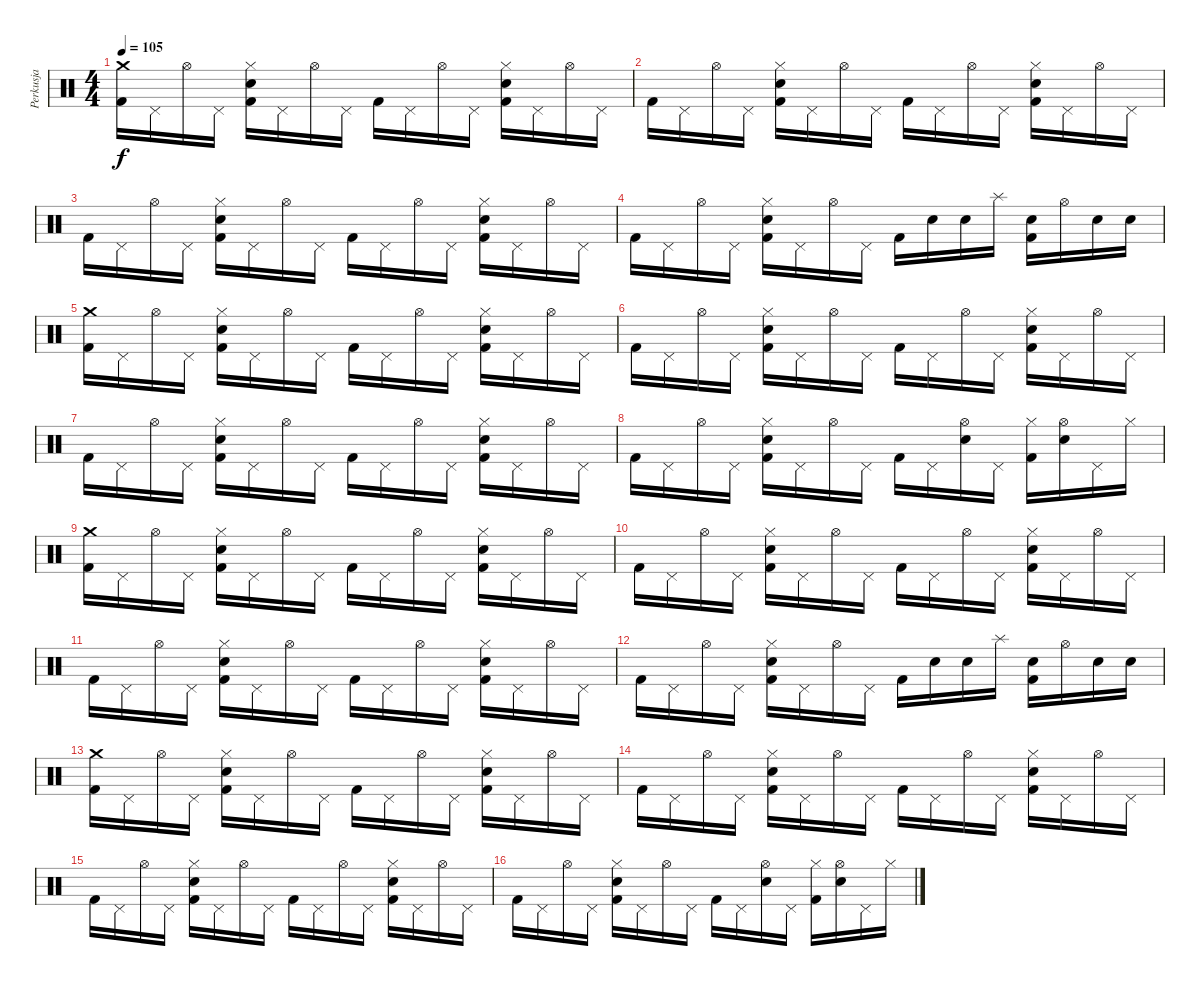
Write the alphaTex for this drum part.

\track ("Perkusja" "Perkusja") {instrument percussion}
\staff {score}
\articulation defaults
\ts (4 4)
\tempo 105
\clef neutral
\ks c
("Crash medium (hit)" "Kick (hit) 2").16{dy f} "Pedal Hi-Hat (hit)".16 "Hi-Hat (open)".16 "Pedal Hi-Hat (hit)".16 ("Hi-Hat (closed)" "Electric Snare (hit)" "Kick (hit) 2").16 "Pedal Hi-Hat (hit)".16 "Hi-Hat (open)".16 "Pedal Hi-Hat (hit)".16 "Kick (hit) 2".16 "Pedal Hi-Hat (hit)".16 "Hi-Hat (open)".16 "Pedal Hi-Hat (hit)".16 ("Hi-Hat (closed)" "Electric Snare (hit)" "Kick (hit) 2").16 "Pedal Hi-Hat (hit)".16 "Hi-Hat (open)".16 "Pedal Hi-Hat (hit)".16 |
"Kick (hit) 2".16 "Pedal Hi-Hat (hit)".16 "Hi-Hat (open)".16 "Pedal Hi-Hat (hit)".16 ("Hi-Hat (closed)" "Electric Snare (hit)" "Kick (hit) 2").16 "Pedal Hi-Hat (hit)".16 "Hi-Hat (open)".16 "Pedal Hi-Hat (hit)".16 "Kick (hit) 2".16 "Pedal Hi-Hat (hit)".16 "Hi-Hat (open)".16 "Pedal Hi-Hat (hit)".16 ("Hi-Hat (closed)" "Electric Snare (hit)" "Kick (hit) 2").16 "Pedal Hi-Hat (hit)".16 "Hi-Hat (open)".16 "Pedal Hi-Hat (hit)".16 |
"Kick (hit) 2".16 "Pedal Hi-Hat (hit)".16 "Hi-Hat (open)".16 "Pedal Hi-Hat (hit)".16 ("Hi-Hat (closed)" "Electric Snare (hit)" "Kick (hit) 2").16 "Pedal Hi-Hat (hit)".16 "Hi-Hat (open)".16 "Pedal Hi-Hat (hit)".16 "Kick (hit) 2".16 "Pedal Hi-Hat (hit)".16 "Hi-Hat (open)".16 "Pedal Hi-Hat (hit)".16 ("Hi-Hat (closed)" "Electric Snare (hit)" "Kick (hit) 2").16 "Pedal Hi-Hat (hit)".16 "Hi-Hat (open)".16 "Pedal Hi-Hat (hit)".16 |
"Kick (hit) 2".16 "Pedal Hi-Hat (hit)".16 "Hi-Hat (open)".16 "Pedal Hi-Hat (hit)".16 ("Hi-Hat (closed)" "Electric Snare (hit)" "Kick (hit) 2").16 "Pedal Hi-Hat (hit)".16 "Hi-Hat (open)".16 "Pedal Hi-Hat (hit)".16 "Kick (hit) 2".16 "Electric Snare (hit)".16 "Electric Snare (hit)".16 "Splash (hit)".16 ("Electric Snare (hit)" "Kick (hit) 2").16 "Hi-Hat (open)".16 "Electric Snare (hit)".16 "Electric Snare (hit)".16 |
("Crash medium (hit)" "Kick (hit) 2").16 "Pedal Hi-Hat (hit)".16 "Hi-Hat (open)".16 "Pedal Hi-Hat (hit)".16 ("Hi-Hat (closed)" "Electric Snare (hit)" "Kick (hit) 2").16 "Pedal Hi-Hat (hit)".16 "Hi-Hat (open)".16 "Pedal Hi-Hat (hit)".16 "Kick (hit) 2".16 "Pedal Hi-Hat (hit)".16 "Hi-Hat (open)".16 "Pedal Hi-Hat (hit)".16 ("Hi-Hat (closed)" "Electric Snare (hit)" "Kick (hit) 2").16 "Pedal Hi-Hat (hit)".16 "Hi-Hat (open)".16 "Pedal Hi-Hat (hit)".16 |
"Kick (hit) 2".16 "Pedal Hi-Hat (hit)".16 "Hi-Hat (open)".16 "Pedal Hi-Hat (hit)".16 ("Hi-Hat (closed)" "Electric Snare (hit)" "Kick (hit) 2").16 "Pedal Hi-Hat (hit)".16 "Hi-Hat (open)".16 "Pedal Hi-Hat (hit)".16 "Kick (hit) 2".16 "Pedal Hi-Hat (hit)".16 "Hi-Hat (open)".16 "Pedal Hi-Hat (hit)".16 ("Hi-Hat (closed)" "Electric Snare (hit)" "Kick (hit) 2").16 "Pedal Hi-Hat (hit)".16 "Hi-Hat (open)".16 "Pedal Hi-Hat (hit)".16 |
"Kick (hit) 2".16 "Pedal Hi-Hat (hit)".16 "Hi-Hat (open)".16 "Pedal Hi-Hat (hit)".16 ("Hi-Hat (closed)" "Electric Snare (hit)" "Kick (hit) 2").16 "Pedal Hi-Hat (hit)".16 "Hi-Hat (open)".16 "Pedal Hi-Hat (hit)".16 "Kick (hit) 2".16 "Pedal Hi-Hat (hit)".16 "Hi-Hat (open)".16 "Pedal Hi-Hat (hit)".16 ("Hi-Hat (closed)" "Electric Snare (hit)" "Kick (hit) 2").16 "Pedal Hi-Hat (hit)".16 "Hi-Hat (open)".16 "Pedal Hi-Hat (hit)".16 |
"Kick (hit) 2".16 "Pedal Hi-Hat (hit)".16 "Hi-Hat (open)".16 "Pedal Hi-Hat (hit)".16 ("Hi-Hat (closed)" "Electric Snare (hit)" "Kick (hit) 2").16 "Pedal Hi-Hat (hit)".16 "Hi-Hat (open)".16 "Pedal Hi-Hat (hit)".16 "Kick (hit) 2".16 "Pedal Hi-Hat (hit)".16 ("Hi-Hat (open)" "Electric Snare (hit)").16 "Pedal Hi-Hat (hit)".16 ("Hi-Hat (closed)" "Kick (hit) 2").16 ("Hi-Hat (open)" "Electric Snare (hit)").16 "Pedal Hi-Hat (hit)".16 "Hi-Hat (closed)".16 |
("Crash medium (hit)" "Kick (hit) 2").16 "Pedal Hi-Hat (hit)".16 "Hi-Hat (open)".16 "Pedal Hi-Hat (hit)".16 ("Hi-Hat (closed)" "Electric Snare (hit)" "Kick (hit) 2").16 "Pedal Hi-Hat (hit)".16 "Hi-Hat (open)".16 "Pedal Hi-Hat (hit)".16 "Kick (hit) 2".16 "Pedal Hi-Hat (hit)".16 "Hi-Hat (open)".16 "Pedal Hi-Hat (hit)".16 ("Hi-Hat (closed)" "Electric Snare (hit)" "Kick (hit) 2").16 "Pedal Hi-Hat (hit)".16 "Hi-Hat (open)".16 "Pedal Hi-Hat (hit)".16 |
"Kick (hit) 2".16 "Pedal Hi-Hat (hit)".16 "Hi-Hat (open)".16 "Pedal Hi-Hat (hit)".16 ("Hi-Hat (closed)" "Electric Snare (hit)" "Kick (hit) 2").16 "Pedal Hi-Hat (hit)".16 "Hi-Hat (open)".16 "Pedal Hi-Hat (hit)".16 "Kick (hit) 2".16 "Pedal Hi-Hat (hit)".16 "Hi-Hat (open)".16 "Pedal Hi-Hat (hit)".16 ("Hi-Hat (closed)" "Electric Snare (hit)" "Kick (hit) 2").16 "Pedal Hi-Hat (hit)".16 "Hi-Hat (open)".16 "Pedal Hi-Hat (hit)".16 |
"Kick (hit) 2".16 "Pedal Hi-Hat (hit)".16 "Hi-Hat (open)".16 "Pedal Hi-Hat (hit)".16 ("Hi-Hat (closed)" "Electric Snare (hit)" "Kick (hit) 2").16 "Pedal Hi-Hat (hit)".16 "Hi-Hat (open)".16 "Pedal Hi-Hat (hit)".16 "Kick (hit) 2".16 "Pedal Hi-Hat (hit)".16 "Hi-Hat (open)".16 "Pedal Hi-Hat (hit)".16 ("Hi-Hat (closed)" "Electric Snare (hit)" "Kick (hit) 2").16 "Pedal Hi-Hat (hit)".16 "Hi-Hat (open)".16 "Pedal Hi-Hat (hit)".16 |
"Kick (hit) 2".16 "Pedal Hi-Hat (hit)".16 "Hi-Hat (open)".16 "Pedal Hi-Hat (hit)".16 ("Hi-Hat (closed)" "Electric Snare (hit)" "Kick (hit) 2").16 "Pedal Hi-Hat (hit)".16 "Hi-Hat (open)".16 "Pedal Hi-Hat (hit)".16 "Kick (hit) 2".16 "Electric Snare (hit)".16 "Electric Snare (hit)".16 "Splash (hit)".16 ("Electric Snare (hit)" "Kick (hit) 2").16 "Hi-Hat (open)".16 "Electric Snare (hit)".16 "Electric Snare (hit)".16 |
("Crash medium (hit)" "Kick (hit) 2").16 "Pedal Hi-Hat (hit)".16 "Hi-Hat (open)".16 "Pedal Hi-Hat (hit)".16 ("Hi-Hat (closed)" "Electric Snare (hit)" "Kick (hit) 2").16 "Pedal Hi-Hat (hit)".16 "Hi-Hat (open)".16 "Pedal Hi-Hat (hit)".16 "Kick (hit) 2".16 "Pedal Hi-Hat (hit)".16 "Hi-Hat (open)".16 "Pedal Hi-Hat (hit)".16 ("Hi-Hat (closed)" "Electric Snare (hit)" "Kick (hit) 2").16 "Pedal Hi-Hat (hit)".16 "Hi-Hat (open)".16 "Pedal Hi-Hat (hit)".16 |
"Kick (hit) 2".16 "Pedal Hi-Hat (hit)".16 "Hi-Hat (open)".16 "Pedal Hi-Hat (hit)".16 ("Hi-Hat (closed)" "Electric Snare (hit)" "Kick (hit) 2").16 "Pedal Hi-Hat (hit)".16 "Hi-Hat (open)".16 "Pedal Hi-Hat (hit)".16 "Kick (hit) 2".16 "Pedal Hi-Hat (hit)".16 "Hi-Hat (open)".16 "Pedal Hi-Hat (hit)".16 ("Hi-Hat (closed)" "Electric Snare (hit)" "Kick (hit) 2").16 "Pedal Hi-Hat (hit)".16 "Hi-Hat (open)".16 "Pedal Hi-Hat (hit)".16 |
"Kick (hit) 2".16 "Pedal Hi-Hat (hit)".16 "Hi-Hat (open)".16 "Pedal Hi-Hat (hit)".16 ("Hi-Hat (closed)" "Electric Snare (hit)" "Kick (hit) 2").16 "Pedal Hi-Hat (hit)".16 "Hi-Hat (open)".16 "Pedal Hi-Hat (hit)".16 "Kick (hit) 2".16 "Pedal Hi-Hat (hit)".16 "Hi-Hat (open)".16 "Pedal Hi-Hat (hit)".16 ("Hi-Hat (closed)" "Electric Snare (hit)" "Kick (hit) 2").16 "Pedal Hi-Hat (hit)".16 "Hi-Hat (open)".16 "Pedal Hi-Hat (hit)".16 |
"Kick (hit) 2".16 "Pedal Hi-Hat (hit)".16 "Hi-Hat (open)".16 "Pedal Hi-Hat (hit)".16 ("Hi-Hat (closed)" "Electric Snare (hit)" "Kick (hit) 2").16 "Pedal Hi-Hat (hit)".16 "Hi-Hat (open)".16 "Pedal Hi-Hat (hit)".16 "Kick (hit) 2".16 "Pedal Hi-Hat (hit)".16 ("Hi-Hat (open)" "Electric Snare (hit)").16 "Pedal Hi-Hat (hit)".16 ("Hi-Hat (closed)" "Kick (hit) 2").16 ("Hi-Hat (open)" "Electric Snare (hit)").16 "Pedal Hi-Hat (hit)".16 "Hi-Hat (closed)".16
